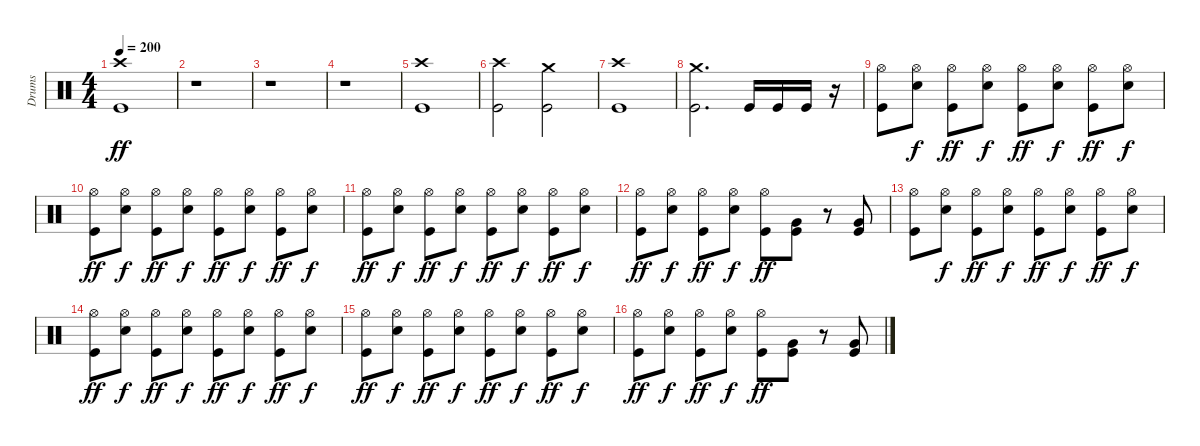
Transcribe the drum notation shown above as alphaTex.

\track ("Drums" "Drums") {instrument percussion}
\staff {score}
\articulation defaults
\ts (4 4)
\tempo 200
\clef neutral
\ks c
("Crash high (hit)" "Kick (hit)").1{dy ff} |
r.1 |
r.1 |
r.1 |
("Crash high (hit)" "Kick (hit)").1 |
("Crash high (hit)" "Kick (hit)").2 ("Crash medium (hit)" "Kick (hit)").2 |
("Crash high (hit)" "Kick (hit)").1 |
("Crash medium (hit)" "Kick (hit)").2{d} "Kick (hit)".16 "Kick (hit)".16 "Kick (hit)".16 r.16 |
("Hi-Hat (open)" "Kick (hit)").8 ("Hi-Hat (open)" "Electric Snare (hit)").8{dy f} ("Hi-Hat (open)" "Kick (hit)").8{dy ff} ("Hi-Hat (open)" "Electric Snare (hit)").8{dy f} ("Hi-Hat (open)" "Kick (hit)").8{dy ff} ("Hi-Hat (open)" "Electric Snare (hit)").8{dy f} ("Hi-Hat (open)" "Kick (hit)").8{dy ff} ("Hi-Hat (open)" "Electric Snare (hit)").8{dy f} |
("Hi-Hat (open)" "Kick (hit)").8{dy ff} ("Hi-Hat (open)" "Electric Snare (hit)").8{dy f} ("Hi-Hat (open)" "Kick (hit)").8{dy ff} ("Hi-Hat (open)" "Electric Snare (hit)").8{dy f} ("Hi-Hat (open)" "Kick (hit)").8{dy ff} ("Hi-Hat (open)" "Electric Snare (hit)").8{dy f} ("Hi-Hat (open)" "Kick (hit)").8{dy ff} ("Hi-Hat (open)" "Electric Snare (hit)").8{dy f} |
("Hi-Hat (open)" "Kick (hit)").8{dy ff} ("Hi-Hat (open)" "Electric Snare (hit)").8{dy f} ("Hi-Hat (open)" "Kick (hit)").8{dy ff} ("Hi-Hat (open)" "Electric Snare (hit)").8{dy f} ("Hi-Hat (open)" "Kick (hit)").8{dy ff} ("Hi-Hat (open)" "Electric Snare (hit)").8{dy f} ("Hi-Hat (open)" "Kick (hit)").8{dy ff} ("Hi-Hat (open)" "Electric Snare (hit)").8{dy f} |
("Hi-Hat (open)" "Kick (hit)").8{dy ff} ("Hi-Hat (open)" "Electric Snare (hit)").8{dy f} ("Hi-Hat (open)" "Kick (hit)").8{dy ff} ("Hi-Hat (open)" "Electric Snare (hit)").8{dy f} ("Hi-Hat (open)" "Kick (hit)").8{dy ff} ("Very Low Tom (hit)" "Kick (hit)").8 r.8 ("Very Low Tom (hit)" "Kick (hit)").8 |
("Hi-Hat (open)" "Kick (hit)").8 ("Hi-Hat (open)" "Electric Snare (hit)").8{dy f} ("Hi-Hat (open)" "Kick (hit)").8{dy ff} ("Hi-Hat (open)" "Electric Snare (hit)").8{dy f} ("Hi-Hat (open)" "Kick (hit)").8{dy ff} ("Hi-Hat (open)" "Electric Snare (hit)").8{dy f} ("Hi-Hat (open)" "Kick (hit)").8{dy ff} ("Hi-Hat (open)" "Electric Snare (hit)").8{dy f} |
("Hi-Hat (open)" "Kick (hit)").8{dy ff} ("Hi-Hat (open)" "Electric Snare (hit)").8{dy f} ("Hi-Hat (open)" "Kick (hit)").8{dy ff} ("Hi-Hat (open)" "Electric Snare (hit)").8{dy f} ("Hi-Hat (open)" "Kick (hit)").8{dy ff} ("Hi-Hat (open)" "Electric Snare (hit)").8{dy f} ("Hi-Hat (open)" "Kick (hit)").8{dy ff} ("Hi-Hat (open)" "Electric Snare (hit)").8{dy f} |
("Hi-Hat (open)" "Kick (hit)").8{dy ff} ("Hi-Hat (open)" "Electric Snare (hit)").8{dy f} ("Hi-Hat (open)" "Kick (hit)").8{dy ff} ("Hi-Hat (open)" "Electric Snare (hit)").8{dy f} ("Hi-Hat (open)" "Kick (hit)").8{dy ff} ("Hi-Hat (open)" "Electric Snare (hit)").8{dy f} ("Hi-Hat (open)" "Kick (hit)").8{dy ff} ("Hi-Hat (open)" "Electric Snare (hit)").8{dy f} |
("Hi-Hat (open)" "Kick (hit)").8{dy ff} ("Hi-Hat (open)" "Electric Snare (hit)").8{dy f} ("Hi-Hat (open)" "Kick (hit)").8{dy ff} ("Hi-Hat (open)" "Electric Snare (hit)").8{dy f} ("Hi-Hat (open)" "Kick (hit)").8{dy ff} ("Very Low Tom (hit)" "Kick (hit)").8 r.8 ("Very Low Tom (hit)" "Kick (hit)").8
